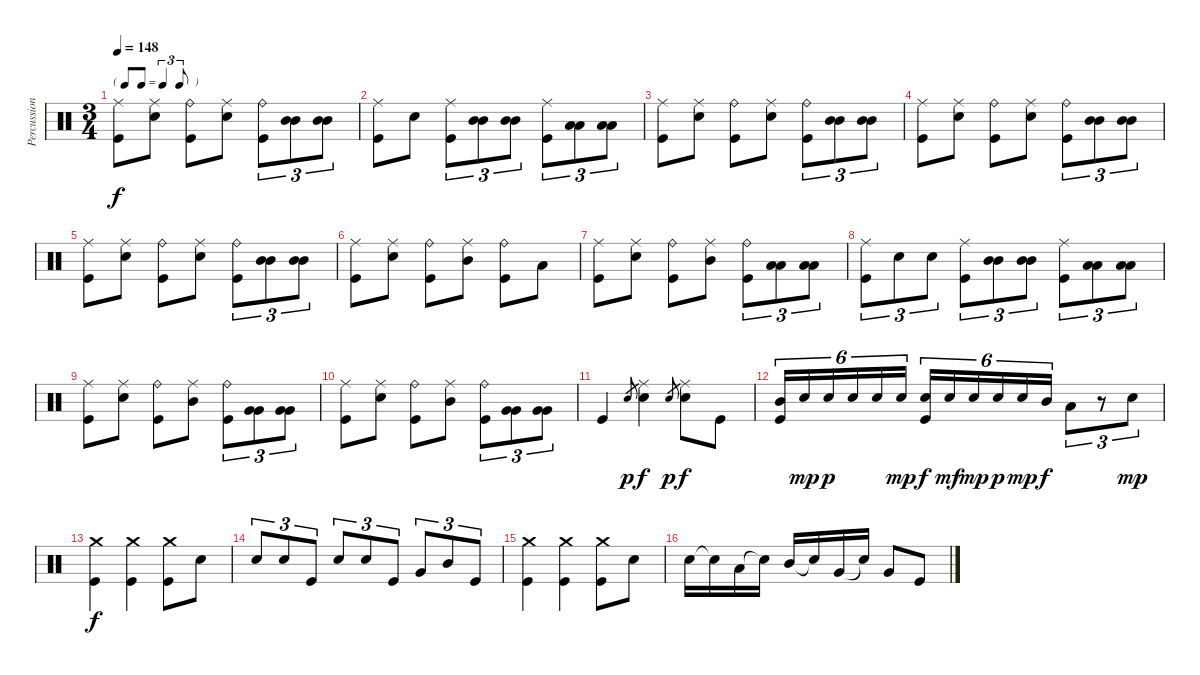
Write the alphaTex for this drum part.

\track ("Percussions" "Percussion") {instrument percussion}
\staff {score}
\articulation defaults
\ts (3 4)
\tf triplet8th
\tempo 148
\clef neutral
\ks c
("Ride (middle)" "Kick (hit)").8{dy f} ("Ride (middle)" "Electric Snare (hit)").8 ("Ride (bell)" "Kick (hit)").8 ("Ride (middle)" "Electric Snare (hit)").8 ("Ride (bell)" "Kick (hit)").8{tu (3 2)} ("Mid Tom (hit)" "Mid Tom (hit)").8{tu (3 2)} ("Mid Tom (hit)" "Mid Tom (hit)").8{tu (3 2)} |
("Ride (middle)" "Kick (hit)").8 "Electric Snare (hit)".8 ("Ride (middle)" "Kick (hit)").8{tu (3 2)} ("Mid Tom (hit)" "Mid Tom (hit)").8{tu (3 2)} ("Mid Tom (hit)" "Mid Tom (hit)").8{tu (3 2)} ("Ride (middle)" "Kick (hit)").8{tu (3 2)} ("Low Tom (hit)" "Low Tom (hit)").8{tu (3 2)} ("Low Tom (hit)" "Low Tom (hit)").8{tu (3 2)} |
("Ride (middle)" "Kick (hit)").8 ("Ride (middle)" "Electric Snare (hit)").8 ("Ride (bell)" "Kick (hit)").8 ("Ride (middle)" "Electric Snare (hit)").8 ("Ride (bell)" "Kick (hit)").8{tu (3 2)} ("Mid Tom (hit)" "Mid Tom (hit)").8{tu (3 2)} ("Mid Tom (hit)" "Mid Tom (hit)").8{tu (3 2)} |
("Ride (middle)" "Kick (hit)").8 ("Ride (middle)" "Electric Snare (hit)").8 ("Ride (bell)" "Kick (hit)").8 ("Ride (middle)" "Electric Snare (hit)").8 ("Ride (bell)" "Kick (hit)").8{tu (3 2)} ("Mid Tom (hit)" "Mid Tom (hit)").8{tu (3 2)} ("Mid Tom (hit)" "Mid Tom (hit)").8{tu (3 2)} |
("Ride (middle)" "Kick (hit)").8 ("Ride (middle)" "Electric Snare (hit)").8 ("Ride (bell)" "Kick (hit)").8 ("Ride (middle)" "Electric Snare (hit)").8 ("Ride (bell)" "Kick (hit)").8{tu (3 2)} ("Mid Tom (hit)" "Mid Tom (hit)").8{tu (3 2)} ("Mid Tom (hit)" "Mid Tom (hit)").8{tu (3 2)} |
("Ride (middle)" "Kick (hit)").8 ("Ride (middle)" "Electric Snare (hit)").8 ("Ride (bell)" "Kick (hit)").8 ("Ride (middle)" "Mid Tom (hit)").8 ("Ride (bell)" "Kick (hit)").8 "Low Tom (hit)".8 |
("Ride (middle)" "Kick (hit)").8 ("Ride (middle)" "Electric Snare (hit)").8 ("Ride (bell)" "Kick (hit)").8 ("Ride (middle)" "Mid Tom (hit)").8 ("Ride (bell)" "Kick (hit)").8{tu (3 2)} ("Low Tom (hit)" "Low Tom (hit)").8{tu (3 2)} ("Low Tom (hit)" "Low Tom (hit)").8{tu (3 2)} |
("Ride (middle)" "Kick (hit)").8{tu (3 2)} "Electric Snare (hit)".8{tu (3 2)} "Electric Snare (hit)".8{tu (3 2)} ("Ride (middle)" "Kick (hit)").8{tu (3 2)} ("Mid Tom (hit)" "Mid Tom (hit)").8{tu (3 2)} ("Mid Tom (hit)" "Mid Tom (hit)").8{tu (3 2)} ("Ride (middle)" "Kick (hit)").8{tu (3 2)} ("Low Tom (hit)" "Low Tom (hit)").8{tu (3 2)} ("Low Tom (hit)" "Low Tom (hit)").8{tu (3 2)} |
("Ride (middle)" "Kick (hit)").8 ("Ride (middle)" "Electric Snare (hit)").8 ("Ride (bell)" "Kick (hit)").8 ("Ride (middle)" "Mid Tom (hit)").8 ("Ride (bell)" "Kick (hit)").8{tu (3 2)} ("Very Low Tom (hit)" "Very Low Tom (hit)").8{tu (3 2)} ("Very Low Tom (hit)" "Very Low Tom (hit)").8{tu (3 2)} |
("Ride (middle)" "Kick (hit)").8 ("Ride (middle)" "Electric Snare (hit)").8 ("Ride (bell)" "Kick (hit)").8 ("Ride (middle)" "Mid Tom (hit)").8 ("Ride (bell)" "Kick (hit)").8{tu (3 2)} ("Very Low Tom (hit)" "Very Low Tom (hit)").8{tu (3 2)} ("Very Low Tom (hit)" "Very Low Tom (hit)").8{tu (3 2)} |
"Kick (hit)".4 "Electric Snare (hit)".8{gr dy p} ("Ride (middle)" "Electric Snare (hit)").4{dy f} "Electric Snare (hit)".8{gr dy p} ("Ride (middle)" "Electric Snare (hit)").8{dy f} "Kick (hit)".8 |
("Mid Tom (hit)" "Kick (hit)").16{tu (6 4)} "Electric Snare (hit)".16{tu (6 4) dy mp} "Electric Snare (hit)".16{tu (6 4) dy p} "Electric Snare (hit)".16{tu (6 4)} "Electric Snare (hit)".16{tu (6 4)} "Electric Snare (hit)".16{tu (6 4) dy mp} ("Electric Snare (hit)" "Kick (hit)").16{tu (6 4) dy f} "Electric Snare (hit)".16{tu (6 4) dy mf} "Electric Snare (hit)".16{tu (6 4) dy mp} "Electric Snare (hit)".16{tu (6 4) dy p} "Electric Snare (hit)".16{tu (6 4) dy mp} "Mid Tom (hit)".16{tu (6 4) dy f} "Low Tom (hit)".8{tu (3 2)} r.8{tu (3 2)} "Electric Snare (hit)".8{tu (3 2) dy mp} |
("Crash medium (hit)" "Kick (hit)").4{dy f} ("Crash medium (hit)" "Kick (hit)").4 ("Crash medium (hit)" "Kick (hit)").8 "Electric Snare (hit)".8 |
"Electric Snare (hit)".8{tu (3 2)} "Electric Snare (hit)".8{tu (3 2)} "Kick (hit)".8{tu (3 2)} "Electric Snare (hit)".8{tu (3 2)} "Electric Snare (hit)".8{tu (3 2)} "Kick (hit)".8{tu (3 2)} "Very Low Tom (hit)".8{tu (3 2)} "Mid Tom (hit)".8{tu (3 2)} "Kick (hit)".8{tu (3 2)} |
("Crash medium (hit)" "Kick (hit)").4 ("Crash medium (hit)" "Kick (hit)").4 ("Crash medium (hit)" "Kick (hit)").8 "Electric Snare (hit)".8 |
"Electric Snare (hit)".16 "Snare (hit)"{t}.16 "Low Tom (hit)".16 "Snare (hit)"{t}.16 "Mid Tom (hit)".16 "Snare (hit)"{t}.16 "Very Low Tom (hit)".16 "Snare (hit)"{t}.16 "Very Low Tom (hit)".8 "Kick (hit)".8
